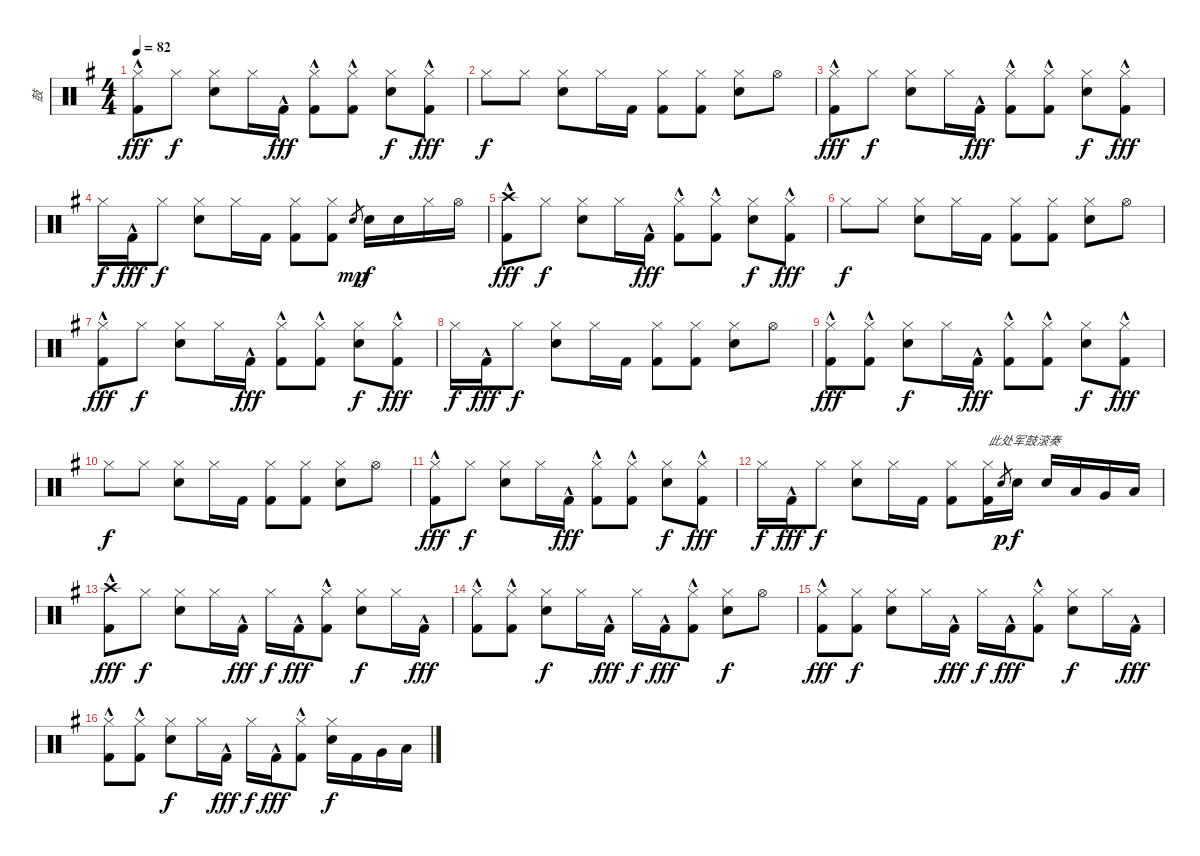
\track ("鼓" "鼓") {instrument percussion}
\staff {score}
\articulation defaults
\ts (4 4)
\tempo 82
\clef neutral
\ks g
("Hi-Hat (closed)" "Kick (hit) 2"{hac}).8{dy fff} "Hi-Hat (closed)".8{dy f} ("Hi-Hat (closed)" "Electric Snare (hit)").8 "Hi-Hat (closed)".16 "Kick (hit) 2"{hac}.16{dy fff} ("Hi-Hat (closed)" "Kick (hit) 2"{hac}).8 ("Hi-Hat (closed)" "Kick (hit) 2"{hac}).8 ("Hi-Hat (closed)" "Electric Snare (hit)").8{dy f} ("Hi-Hat (closed)" "Kick (hit) 2"{hac}).8{dy fff} |
"Hi-Hat (closed)".8{dy f} "Hi-Hat (closed)".8 ("Hi-Hat (closed)" "Electric Snare (hit)").8 "Hi-Hat (closed)".16 "Kick (hit) 2".16 ("Hi-Hat (closed)" "Kick (hit) 2").8 ("Hi-Hat (closed)" "Kick (hit) 2").8 ("Hi-Hat (closed)" "Electric Snare (hit)").8 "Hi-Hat (open)".8 |
("Hi-Hat (closed)" "Kick (hit) 2"{hac}).8{dy fff} "Hi-Hat (closed)".8{dy f} ("Hi-Hat (closed)" "Electric Snare (hit)").8 "Hi-Hat (closed)".16 "Kick (hit) 2"{hac}.16{dy fff} ("Hi-Hat (closed)" "Kick (hit) 2"{hac}).8 ("Hi-Hat (closed)" "Kick (hit) 2"{hac}).8 ("Hi-Hat (closed)" "Electric Snare (hit)").8{dy f} ("Hi-Hat (closed)" "Kick (hit) 2"{hac}).8{dy fff} |
"Hi-Hat (closed)".16{dy f} "Kick (hit) 2"{hac}.16{dy fff} "Hi-Hat (closed)".8{dy f} ("Hi-Hat (closed)" "Electric Snare (hit)").8 "Hi-Hat (closed)".16 "Kick (hit) 2".16 ("Hi-Hat (closed)" "Kick (hit) 2").8 ("Hi-Hat (closed)" "Kick (hit) 2").8 "Electric Snare (hit)".8{gr dy mp} "Electric Snare (hit)".16{dy f} "Electric Snare (hit)".16 "Hi-Hat (closed)".16 "Hi-Hat (open)".16 |
("Crash high (hit)" "Kick (hit) 2"{hac}).8{dy fff} "Hi-Hat (closed)".8{dy f} ("Hi-Hat (closed)" "Electric Snare (hit)").8 "Hi-Hat (closed)".16 "Kick (hit) 2"{hac}.16{dy fff} ("Hi-Hat (closed)" "Kick (hit) 2"{hac}).8 ("Hi-Hat (closed)" "Kick (hit) 2"{hac}).8 ("Hi-Hat (closed)" "Electric Snare (hit)").8{dy f} ("Hi-Hat (closed)" "Kick (hit) 2"{hac}).8{dy fff} |
"Hi-Hat (closed)".8{dy f} "Hi-Hat (closed)".8 ("Hi-Hat (closed)" "Electric Snare (hit)").8 "Hi-Hat (closed)".16 "Kick (hit) 2".16 ("Hi-Hat (closed)" "Kick (hit) 2").8 ("Hi-Hat (closed)" "Kick (hit) 2").8 ("Hi-Hat (closed)" "Electric Snare (hit)").8 "Hi-Hat (open)".8 |
("Hi-Hat (closed)" "Kick (hit) 2"{hac}).8{dy fff} "Hi-Hat (closed)".8{dy f} ("Hi-Hat (closed)" "Electric Snare (hit)").8 "Hi-Hat (closed)".16 "Kick (hit) 2"{hac}.16{dy fff} ("Hi-Hat (closed)" "Kick (hit) 2"{hac}).8 ("Hi-Hat (closed)" "Kick (hit) 2"{hac}).8 ("Hi-Hat (closed)" "Electric Snare (hit)").8{dy f} ("Hi-Hat (closed)" "Kick (hit) 2"{hac}).8{dy fff} |
"Hi-Hat (closed)".16{dy f} "Kick (hit) 2"{hac}.16{dy fff} "Hi-Hat (closed)".8{dy f} ("Hi-Hat (closed)" "Electric Snare (hit)").8 "Hi-Hat (closed)".16 "Kick (hit) 2".16 ("Hi-Hat (closed)" "Kick (hit) 2").8 ("Hi-Hat (closed)" "Kick (hit) 2").8 ("Hi-Hat (closed)" "Electric Snare (hit)").8 "Hi-Hat (open)".8 |
("Hi-Hat (closed)" "Kick (hit) 2"{hac}).8{dy fff} ("Hi-Hat (closed)" "Kick (hit) 2"{hac}).8 ("Hi-Hat (closed)" "Electric Snare (hit)").8{dy f} "Hi-Hat (closed)".16 "Kick (hit) 2"{hac}.16{dy fff} ("Hi-Hat (closed)" "Kick (hit) 2"{hac}).8 ("Hi-Hat (closed)" "Kick (hit) 2"{hac}).8 ("Hi-Hat (closed)" "Electric Snare (hit)").8{dy f} ("Hi-Hat (closed)" "Kick (hit) 2"{hac}).8{dy fff} |
"Hi-Hat (closed)".8{dy f} "Hi-Hat (closed)".8 ("Hi-Hat (closed)" "Electric Snare (hit)").8 "Hi-Hat (closed)".16 "Kick (hit) 2".16 ("Hi-Hat (closed)" "Kick (hit) 2").8 ("Hi-Hat (closed)" "Kick (hit) 2").8 ("Hi-Hat (closed)" "Electric Snare (hit)").8 "Hi-Hat (open)".8 |
("Hi-Hat (closed)" "Kick (hit) 2"{hac}).8{dy fff} "Hi-Hat (closed)".8{dy f} ("Hi-Hat (closed)" "Electric Snare (hit)").8 "Hi-Hat (closed)".16 "Kick (hit) 2"{hac}.16{dy fff} ("Hi-Hat (closed)" "Kick (hit) 2"{hac}).8 ("Hi-Hat (closed)" "Kick (hit) 2"{hac}).8 ("Hi-Hat (closed)" "Electric Snare (hit)").8{dy f} ("Hi-Hat (closed)" "Kick (hit) 2"{hac}).8{dy fff} |
"Hi-Hat (closed)".16{dy f} "Kick (hit) 2"{hac}.16{dy fff} "Hi-Hat (closed)".8{dy f} ("Hi-Hat (closed)" "Electric Snare (hit)").8 "Hi-Hat (closed)".16 "Kick (hit) 2".16 ("Hi-Hat (closed)" "Kick (hit) 2").8 ("Hi-Hat (closed)" "Kick (hit) 2").16{txt "此处军鼓滚奏"} "Electric Snare (hit)".8{gr dy p} "Electric Snare (hit)".16{dy f} "Electric Snare (hit)".16 "Low Tom (hit)".16 "Very Low Tom (hit)".16 "Low Floor Tom (hit)".16 |
("Crash high (hit)" "Kick (hit) 2"{hac}).8{dy fff} "Hi-Hat (closed)".8{dy f} ("Hi-Hat (closed)" "Electric Snare (hit)").8 "Hi-Hat (closed)".16 "Kick (hit) 2"{hac}.16{dy fff} "Hi-Hat (closed)".16{dy f} "Kick (hit) 2"{hac}.16{dy fff} ("Hi-Hat (closed)" "Kick (hit) 2"{hac}).8 ("Hi-Hat (closed)" "Electric Snare (hit)").8{dy f} "Hi-Hat (closed)".16 "Kick (hit) 2"{hac}.16{dy fff} |
("Hi-Hat (closed)" "Kick (hit) 2"{hac}).8 ("Hi-Hat (closed)" "Kick (hit) 2"{hac}).8 ("Hi-Hat (closed)" "Electric Snare (hit)").8{dy f} "Hi-Hat (closed)".16 "Kick (hit) 2"{hac}.16{dy fff} "Hi-Hat (closed)".16{dy f} "Kick (hit) 2"{hac}.16{dy fff} ("Hi-Hat (closed)" "Kick (hit) 2"{hac}).8 ("Hi-Hat (closed)" "Electric Snare (hit)").8{dy f} "Hi-Hat (open)".8 |
("Hi-Hat (closed)" "Kick (hit) 2"{hac}).8{dy fff} ("Hi-Hat (closed)" "Kick (hit) 2").8{dy f} ("Hi-Hat (closed)" "Electric Snare (hit)").8 "Hi-Hat (closed)".16 "Kick (hit) 2"{hac}.16{dy fff} "Hi-Hat (closed)".16{dy f} "Kick (hit) 2"{hac}.16{dy fff} ("Hi-Hat (closed)" "Kick (hit) 2"{hac}).8 ("Hi-Hat (closed)" "Electric Snare (hit)").8{dy f} "Hi-Hat (closed)".16 "Kick (hit) 2"{hac}.16{dy fff} |
("Hi-Hat (closed)" "Kick (hit) 2"{hac}).8 ("Hi-Hat (closed)" "Kick (hit) 2"{hac}).8 ("Hi-Hat (closed)" "Electric Snare (hit)").8{dy f} "Hi-Hat (closed)".16 "Kick (hit) 2"{hac}.16{dy fff} "Hi-Hat (closed)".16{dy f} "Kick (hit) 2"{hac}.16{dy fff} ("Hi-Hat (closed)" "Kick (hit) 2"{hac}).8 ("Hi-Hat (closed)" "Electric Snare (hit)").16{dy f} "Kick (hit) 2".16 "Very Low Tom (hit)".16 "Low Floor Tom (hit)".16
